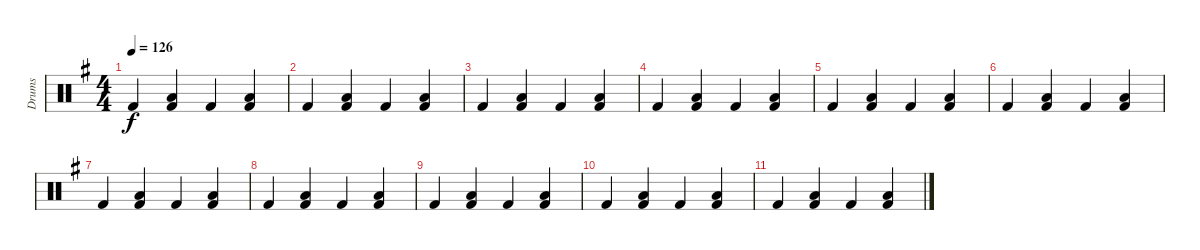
\track ("Drums" "Drums") {instrument percussion}
\staff {score}
\articulation defaults
\ts (4 4)
\tempo 126
\clef neutral
\ks g "Kick (hit) 2".4{dy f}
("Low Floor Tom (hit)" "Kick (hit) 2").4 "Kick (hit) 2".4 ("Low Floor Tom (hit)" "Kick (hit) 2").4 |
"Kick (hit) 2".4 ("Low Floor Tom (hit)" "Kick (hit) 2").4 "Kick (hit) 2".4 ("Low Floor Tom (hit)" "Kick (hit) 2").4 |
"Kick (hit) 2".4 ("Low Floor Tom (hit)" "Kick (hit) 2").4 "Kick (hit) 2".4 ("Low Floor Tom (hit)" "Kick (hit) 2").4 |
"Kick (hit) 2".4 ("Low Floor Tom (hit)" "Kick (hit) 2").4 "Kick (hit) 2".4 ("Low Floor Tom (hit)" "Kick (hit) 2").4 |
"Kick (hit) 2".4 ("Low Floor Tom (hit)" "Kick (hit) 2").4 "Kick (hit) 2".4 ("Low Floor Tom (hit)" "Kick (hit) 2").4 |
"Kick (hit) 2".4 ("Low Floor Tom (hit)" "Kick (hit) 2").4 "Kick (hit) 2".4 ("Low Floor Tom (hit)" "Kick (hit) 2").4 |
"Kick (hit) 2".4 ("Low Floor Tom (hit)" "Kick (hit) 2").4 "Kick (hit) 2".4 ("Low Floor Tom (hit)" "Kick (hit) 2").4 |
"Kick (hit) 2".4 ("Low Floor Tom (hit)" "Kick (hit) 2").4 "Kick (hit) 2".4 ("Low Floor Tom (hit)" "Kick (hit) 2").4 |
"Kick (hit) 2".4 ("Low Floor Tom (hit)" "Kick (hit) 2").4 "Kick (hit) 2".4 ("Low Floor Tom (hit)" "Kick (hit) 2").4 |
"Kick (hit) 2".4 ("Low Floor Tom (hit)" "Kick (hit) 2").4 "Kick (hit) 2".4 ("Low Floor Tom (hit)" "Kick (hit) 2").4 |
"Kick (hit) 2".4 ("Low Floor Tom (hit)" "Kick (hit) 2").4 "Kick (hit) 2".4 ("Low Floor Tom (hit)" "Kick (hit) 2").4
